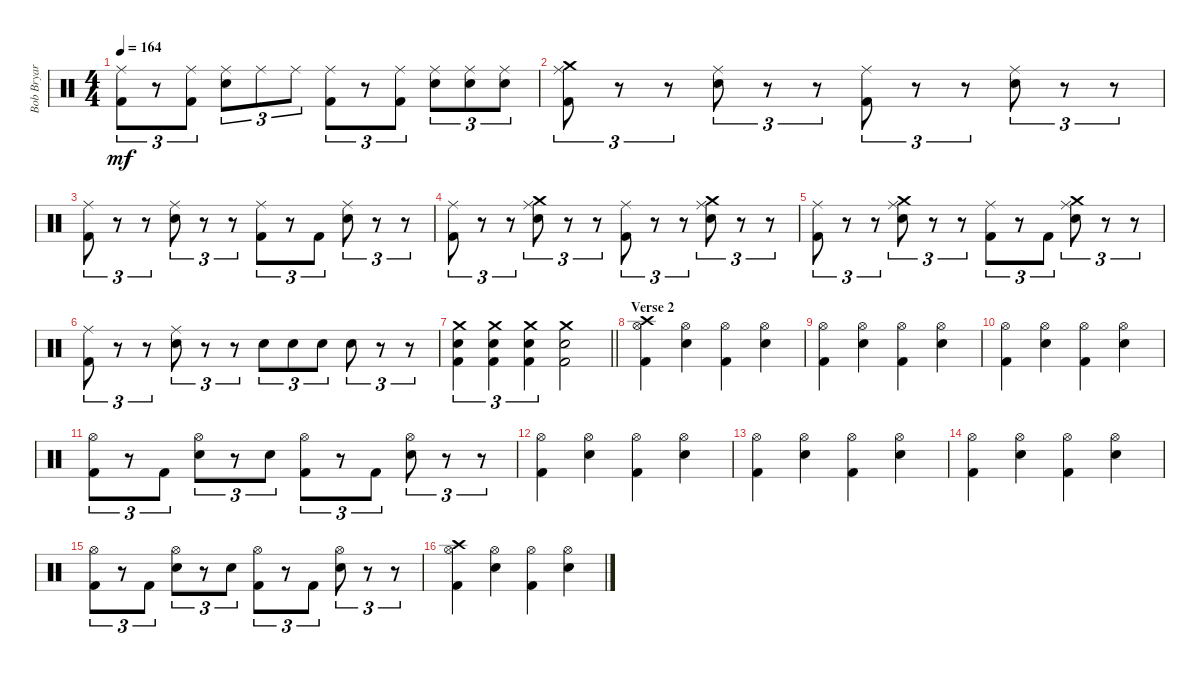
\track ("Bob Bryar" "Bob Bryar") {instrument percussion}
\staff {score}
\articulation defaults
\ts (4 4)
\tempo 164
\clef neutral
\ks c
("Ride (middle)" "Kick (hit) 2").8{tu (3 2) dy mf} r.8{tu (3 2)} ("Ride (middle)" "Kick (hit) 2").8{tu (3 2)} ("Ride (middle)" "Electric Snare (hit)").8{tu (3 2)} "Ride (middle)".8{tu (3 2)} "Ride (middle)".8{tu (3 2)} ("Ride (middle)" "Kick (hit) 2").8{tu (3 2)} r.8{tu (3 2)} ("Ride (middle)" "Kick (hit) 2").8{tu (3 2)} ("Ride (middle)" "Electric Snare (hit)").8{tu (3 2)} ("Ride (middle)" "Electric Snare (hit)").8{tu (3 2)} ("Ride (middle)" "Electric Snare (hit)").8{tu (3 2)} |
("Crash medium (hit)" "Ride (middle)" "Kick (hit) 2").8{tu (3 2)} r.8{tu (3 2)} r.8{tu (3 2)} ("Ride (middle)" "Electric Snare (hit)").8{tu (3 2)} r.8{tu (3 2)} r.8{tu (3 2)} ("Ride (middle)" "Kick (hit) 2").8{tu (3 2)} r.8{tu (3 2)} r.8{tu (3 2)} ("Ride (middle)" "Electric Snare (hit)").8{tu (3 2)} r.8{tu (3 2)} r.8{tu (3 2)} |
("Ride (middle)" "Kick (hit) 2").8{tu (3 2)} r.8{tu (3 2)} r.8{tu (3 2)} ("Ride (middle)" "Electric Snare (hit)").8{tu (3 2)} r.8{tu (3 2)} r.8{tu (3 2)} ("Ride (middle)" "Kick (hit) 2").8{tu (3 2)} r.8{tu (3 2)} "Kick (hit) 2".8{tu (3 2)} ("Ride (middle)" "Electric Snare (hit)").8{tu (3 2)} r.8{tu (3 2)} r.8{tu (3 2)} |
("Ride (middle)" "Kick (hit) 2").8{tu (3 2)} r.8{tu (3 2)} r.8{tu (3 2)} ("Crash medium (hit)" "Ride (middle)" "Electric Snare (hit)").8{tu (3 2)} r.8{tu (3 2)} r.8{tu (3 2)} ("Ride (middle)" "Kick (hit) 2").8{tu (3 2)} r.8{tu (3 2)} r.8{tu (3 2)} ("Crash medium (hit)" "Ride (middle)" "Electric Snare (hit)").8{tu (3 2)} r.8{tu (3 2)} r.8{tu (3 2)} |
("Ride (middle)" "Kick (hit) 2").8{tu (3 2)} r.8{tu (3 2)} r.8{tu (3 2)} ("Crash medium (hit)" "Ride (middle)" "Electric Snare (hit)").8{tu (3 2)} r.8{tu (3 2)} r.8{tu (3 2)} ("Ride (middle)" "Kick (hit) 2").8{tu (3 2)} r.8{tu (3 2)} "Kick (hit) 2".8{tu (3 2)} ("Crash medium (hit)" "Ride (middle)" "Electric Snare (hit)").8{tu (3 2)} r.8{tu (3 2)} r.8{tu (3 2)} |
("Ride (middle)" "Kick (hit) 2").8{tu (3 2)} r.8{tu (3 2)} r.8{tu (3 2)} ("Ride (middle)" "Electric Snare (hit)").8{tu (3 2)} r.8{tu (3 2)} r.8{tu (3 2)} "Electric Snare (hit)".8{tu (3 2)} "Electric Snare (hit)".8{tu (3 2)} "Electric Snare (hit)".8{tu (3 2)} "Electric Snare (hit)".8{tu (3 2)} r.8{tu (3 2)} r.8{tu (3 2)} |
\barLineRight lightlight
("Crash medium (hit)" "Electric Snare (hit)" "Kick (hit) 2").4{tu (3 2)} ("Crash medium (hit)" "Electric Snare (hit)" "Kick (hit) 2").4{tu (3 2)} ("Crash medium (hit)" "Electric Snare (hit)" "Kick (hit) 2").4{tu (3 2)} ("Crash medium (hit)" "Electric Snare (hit)" "Kick (hit) 2").2 |
\section ("" "Verse 2")
("Crash high (hit)" "Hi-Hat (open)" "Kick (hit) 2").4 ("Hi-Hat (open)" "Electric Snare (hit)").4 ("Hi-Hat (open)" "Kick (hit) 2").4 ("Hi-Hat (open)" "Electric Snare (hit)").4 |
("Hi-Hat (open)" "Kick (hit) 2").4 ("Hi-Hat (open)" "Electric Snare (hit)").4 ("Hi-Hat (open)" "Kick (hit) 2").4 ("Hi-Hat (open)" "Electric Snare (hit)").4 |
("Hi-Hat (open)" "Kick (hit) 2").4 ("Hi-Hat (open)" "Electric Snare (hit)").4 ("Hi-Hat (open)" "Kick (hit) 2").4 ("Hi-Hat (open)" "Electric Snare (hit)").4 |
("Hi-Hat (open)" "Kick (hit) 2").8{tu (3 2)} r.8{tu (3 2)} "Kick (hit) 2".8{tu (3 2)} ("Hi-Hat (open)" "Electric Snare (hit)").8{tu (3 2)} r.8{tu (3 2)} "Electric Snare (hit)".8{tu (3 2)} ("Hi-Hat (open)" "Kick (hit) 2").8{tu (3 2)} r.8{tu (3 2)} "Kick (hit) 2".8{tu (3 2)} ("Hi-Hat (open)" "Electric Snare (hit)").8{tu (3 2)} r.8{tu (3 2)} r.8{tu (3 2)} |
("Hi-Hat (open)" "Kick (hit) 2").4 ("Hi-Hat (open)" "Electric Snare (hit)").4 ("Hi-Hat (open)" "Kick (hit) 2").4 ("Hi-Hat (open)" "Electric Snare (hit)").4 |
("Hi-Hat (open)" "Kick (hit) 2").4 ("Hi-Hat (open)" "Electric Snare (hit)").4 ("Hi-Hat (open)" "Kick (hit) 2").4 ("Hi-Hat (open)" "Electric Snare (hit)").4 |
("Hi-Hat (open)" "Kick (hit) 2").4 ("Hi-Hat (open)" "Electric Snare (hit)").4 ("Hi-Hat (open)" "Kick (hit) 2").4 ("Hi-Hat (open)" "Electric Snare (hit)").4 |
("Hi-Hat (open)" "Kick (hit) 2").8{tu (3 2)} r.8{tu (3 2)} "Kick (hit) 2".8{tu (3 2)} ("Hi-Hat (open)" "Electric Snare (hit)").8{tu (3 2)} r.8{tu (3 2)} "Electric Snare (hit)".8{tu (3 2)} ("Hi-Hat (open)" "Kick (hit) 2").8{tu (3 2)} r.8{tu (3 2)} "Kick (hit) 2".8{tu (3 2)} ("Hi-Hat (open)" "Electric Snare (hit)").8{tu (3 2)} r.8{tu (3 2)} r.8{tu (3 2)} |
("Crash high (hit)" "Hi-Hat (open)" "Kick (hit) 2").4 ("Hi-Hat (open)" "Electric Snare (hit)").4 ("Hi-Hat (open)" "Kick (hit) 2").4 ("Hi-Hat (open)" "Electric Snare (hit)").4
